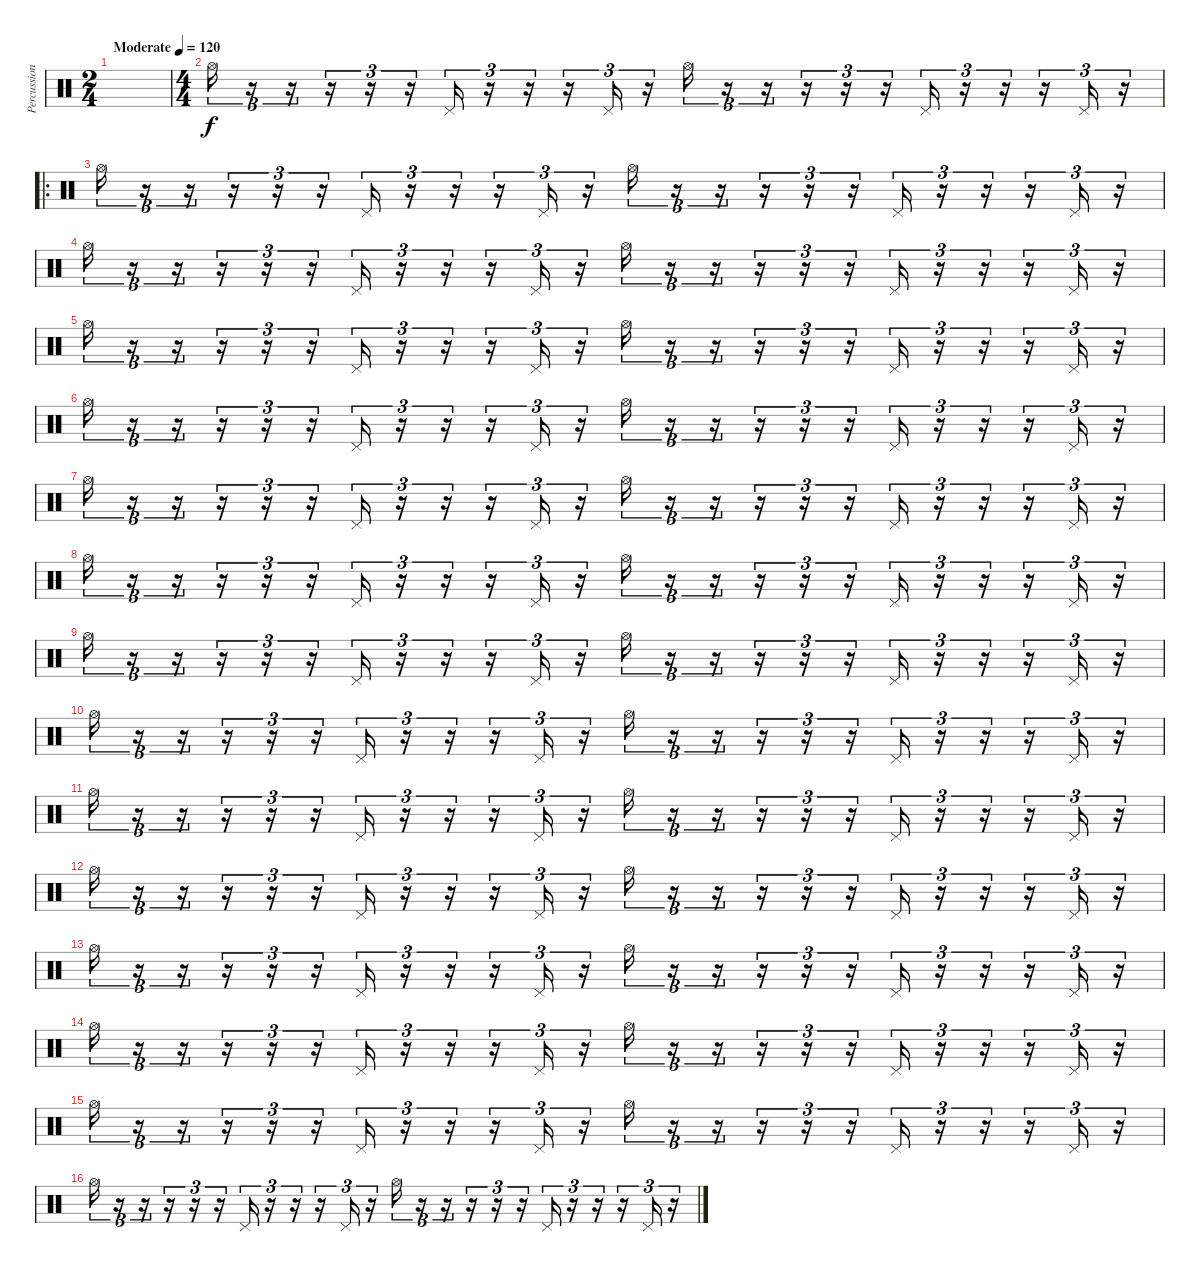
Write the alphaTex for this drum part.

\track ("Percussion" "Percussion") {instrument percussion}
\staff {score}
\articulation defaults
\ts (2 4)
\tempo (120 "Moderate")
\clef neutral
\ks c
|
\ts (4 4)
"Hi-Hat (open)".16{tu (3 2)} r.16{tu (3 2)} r.16{tu (3 2)} r.16{tu (3 2)} r.16{tu (3 2)} r.16{tu (3 2)} "Pedal Hi-Hat (hit)".16{tu (3 2)} r.16{tu (3 2)} r.16{tu (3 2)} r.16{tu (3 2)} "Pedal Hi-Hat (hit)".16{tu (3 2)} r.16{tu (3 2)} "Hi-Hat (open)".16{tu (3 2)} r.16{tu (3 2)} r.16{tu (3 2)} r.16{tu (3 2)} r.16{tu (3 2)} r.16{tu (3 2)} "Pedal Hi-Hat (hit)".16{tu (3 2)} r.16{tu (3 2)} r.16{tu (3 2)} r.16{tu (3 2)} "Pedal Hi-Hat (hit)".16{tu (3 2)} r.16{tu (3 2)} |
\ro "Hi-Hat (open)".16{tu (3 2)}
r.16{tu (3 2)} r.16{tu (3 2)} r.16{tu (3 2)} r.16{tu (3 2)} r.16{tu (3 2)} "Pedal Hi-Hat (hit)".16{tu (3 2)} r.16{tu (3 2)} r.16{tu (3 2)} r.16{tu (3 2)} "Pedal Hi-Hat (hit)".16{tu (3 2)} r.16{tu (3 2)} "Hi-Hat (open)".16{tu (3 2)} r.16{tu (3 2)} r.16{tu (3 2)} r.16{tu (3 2)} r.16{tu (3 2)} r.16{tu (3 2)} "Pedal Hi-Hat (hit)".16{tu (3 2)} r.16{tu (3 2)} r.16{tu (3 2)} r.16{tu (3 2)} "Pedal Hi-Hat (hit)".16{tu (3 2)} r.16{tu (3 2)} |
"Hi-Hat (open)".16{tu (3 2)} r.16{tu (3 2)} r.16{tu (3 2)} r.16{tu (3 2)} r.16{tu (3 2)} r.16{tu (3 2)} "Pedal Hi-Hat (hit)".16{tu (3 2)} r.16{tu (3 2)} r.16{tu (3 2)} r.16{tu (3 2)} "Pedal Hi-Hat (hit)".16{tu (3 2)} r.16{tu (3 2)} "Hi-Hat (open)".16{tu (3 2)} r.16{tu (3 2)} r.16{tu (3 2)} r.16{tu (3 2)} r.16{tu (3 2)} r.16{tu (3 2)} "Pedal Hi-Hat (hit)".16{tu (3 2)} r.16{tu (3 2)} r.16{tu (3 2)} r.16{tu (3 2)} "Pedal Hi-Hat (hit)".16{tu (3 2)} r.16{tu (3 2)} |
"Hi-Hat (open)".16{tu (3 2)} r.16{tu (3 2)} r.16{tu (3 2)} r.16{tu (3 2)} r.16{tu (3 2)} r.16{tu (3 2)} "Pedal Hi-Hat (hit)".16{tu (3 2)} r.16{tu (3 2)} r.16{tu (3 2)} r.16{tu (3 2)} "Pedal Hi-Hat (hit)".16{tu (3 2)} r.16{tu (3 2)} "Hi-Hat (open)".16{tu (3 2)} r.16{tu (3 2)} r.16{tu (3 2)} r.16{tu (3 2)} r.16{tu (3 2)} r.16{tu (3 2)} "Pedal Hi-Hat (hit)".16{tu (3 2)} r.16{tu (3 2)} r.16{tu (3 2)} r.16{tu (3 2)} "Pedal Hi-Hat (hit)".16{tu (3 2)} r.16{tu (3 2)} |
"Hi-Hat (open)".16{tu (3 2)} r.16{tu (3 2)} r.16{tu (3 2)} r.16{tu (3 2)} r.16{tu (3 2)} r.16{tu (3 2)} "Pedal Hi-Hat (hit)".16{tu (3 2)} r.16{tu (3 2)} r.16{tu (3 2)} r.16{tu (3 2)} "Pedal Hi-Hat (hit)".16{tu (3 2)} r.16{tu (3 2)} "Hi-Hat (open)".16{tu (3 2)} r.16{tu (3 2)} r.16{tu (3 2)} r.16{tu (3 2)} r.16{tu (3 2)} r.16{tu (3 2)} "Pedal Hi-Hat (hit)".16{tu (3 2)} r.16{tu (3 2)} r.16{tu (3 2)} r.16{tu (3 2)} "Pedal Hi-Hat (hit)".16{tu (3 2)} r.16{tu (3 2)} |
"Hi-Hat (open)".16{tu (3 2)} r.16{tu (3 2)} r.16{tu (3 2)} r.16{tu (3 2)} r.16{tu (3 2)} r.16{tu (3 2)} "Pedal Hi-Hat (hit)".16{tu (3 2)} r.16{tu (3 2)} r.16{tu (3 2)} r.16{tu (3 2)} "Pedal Hi-Hat (hit)".16{tu (3 2)} r.16{tu (3 2)} "Hi-Hat (open)".16{tu (3 2)} r.16{tu (3 2)} r.16{tu (3 2)} r.16{tu (3 2)} r.16{tu (3 2)} r.16{tu (3 2)} "Pedal Hi-Hat (hit)".16{tu (3 2)} r.16{tu (3 2)} r.16{tu (3 2)} r.16{tu (3 2)} "Pedal Hi-Hat (hit)".16{tu (3 2)} r.16{tu (3 2)} |
"Hi-Hat (open)".16{tu (3 2)} r.16{tu (3 2)} r.16{tu (3 2)} r.16{tu (3 2)} r.16{tu (3 2)} r.16{tu (3 2)} "Pedal Hi-Hat (hit)".16{tu (3 2)} r.16{tu (3 2)} r.16{tu (3 2)} r.16{tu (3 2)} "Pedal Hi-Hat (hit)".16{tu (3 2)} r.16{tu (3 2)} "Hi-Hat (open)".16{tu (3 2)} r.16{tu (3 2)} r.16{tu (3 2)} r.16{tu (3 2)} r.16{tu (3 2)} r.16{tu (3 2)} "Pedal Hi-Hat (hit)".16{tu (3 2)} r.16{tu (3 2)} r.16{tu (3 2)} r.16{tu (3 2)} "Pedal Hi-Hat (hit)".16{tu (3 2)} r.16{tu (3 2)} |
"Hi-Hat (open)".16{tu (3 2)} r.16{tu (3 2)} r.16{tu (3 2)} r.16{tu (3 2)} r.16{tu (3 2)} r.16{tu (3 2)} "Pedal Hi-Hat (hit)".16{tu (3 2)} r.16{tu (3 2)} r.16{tu (3 2)} r.16{tu (3 2)} "Pedal Hi-Hat (hit)".16{tu (3 2)} r.16{tu (3 2)} "Hi-Hat (open)".16{tu (3 2)} r.16{tu (3 2)} r.16{tu (3 2)} r.16{tu (3 2)} r.16{tu (3 2)} r.16{tu (3 2)} "Pedal Hi-Hat (hit)".16{tu (3 2)} r.16{tu (3 2)} r.16{tu (3 2)} r.16{tu (3 2)} "Pedal Hi-Hat (hit)".16{tu (3 2)} r.16{tu (3 2)} |
"Hi-Hat (open)".16{tu (3 2)} r.16{tu (3 2)} r.16{tu (3 2)} r.16{tu (3 2)} r.16{tu (3 2)} r.16{tu (3 2)} "Pedal Hi-Hat (hit)".16{tu (3 2)} r.16{tu (3 2)} r.16{tu (3 2)} r.16{tu (3 2)} "Pedal Hi-Hat (hit)".16{tu (3 2)} r.16{tu (3 2)} "Hi-Hat (open)".16{tu (3 2)} r.16{tu (3 2)} r.16{tu (3 2)} r.16{tu (3 2)} r.16{tu (3 2)} r.16{tu (3 2)} "Pedal Hi-Hat (hit)".16{tu (3 2)} r.16{tu (3 2)} r.16{tu (3 2)} r.16{tu (3 2)} "Pedal Hi-Hat (hit)".16{tu (3 2)} r.16{tu (3 2)} |
"Hi-Hat (open)".16{tu (3 2)} r.16{tu (3 2)} r.16{tu (3 2)} r.16{tu (3 2)} r.16{tu (3 2)} r.16{tu (3 2)} "Pedal Hi-Hat (hit)".16{tu (3 2)} r.16{tu (3 2)} r.16{tu (3 2)} r.16{tu (3 2)} "Pedal Hi-Hat (hit)".16{tu (3 2)} r.16{tu (3 2)} "Hi-Hat (open)".16{tu (3 2)} r.16{tu (3 2)} r.16{tu (3 2)} r.16{tu (3 2)} r.16{tu (3 2)} r.16{tu (3 2)} "Pedal Hi-Hat (hit)".16{tu (3 2)} r.16{tu (3 2)} r.16{tu (3 2)} r.16{tu (3 2)} "Pedal Hi-Hat (hit)".16{tu (3 2)} r.16{tu (3 2)} |
"Hi-Hat (open)".16{tu (3 2)} r.16{tu (3 2)} r.16{tu (3 2)} r.16{tu (3 2)} r.16{tu (3 2)} r.16{tu (3 2)} "Pedal Hi-Hat (hit)".16{tu (3 2)} r.16{tu (3 2)} r.16{tu (3 2)} r.16{tu (3 2)} "Pedal Hi-Hat (hit)".16{tu (3 2)} r.16{tu (3 2)} "Hi-Hat (open)".16{tu (3 2)} r.16{tu (3 2)} r.16{tu (3 2)} r.16{tu (3 2)} r.16{tu (3 2)} r.16{tu (3 2)} "Pedal Hi-Hat (hit)".16{tu (3 2)} r.16{tu (3 2)} r.16{tu (3 2)} r.16{tu (3 2)} "Pedal Hi-Hat (hit)".16{tu (3 2)} r.16{tu (3 2)} |
"Hi-Hat (open)".16{tu (3 2)} r.16{tu (3 2)} r.16{tu (3 2)} r.16{tu (3 2)} r.16{tu (3 2)} r.16{tu (3 2)} "Pedal Hi-Hat (hit)".16{tu (3 2)} r.16{tu (3 2)} r.16{tu (3 2)} r.16{tu (3 2)} "Pedal Hi-Hat (hit)".16{tu (3 2)} r.16{tu (3 2)} "Hi-Hat (open)".16{tu (3 2)} r.16{tu (3 2)} r.16{tu (3 2)} r.16{tu (3 2)} r.16{tu (3 2)} r.16{tu (3 2)} "Pedal Hi-Hat (hit)".16{tu (3 2)} r.16{tu (3 2)} r.16{tu (3 2)} r.16{tu (3 2)} "Pedal Hi-Hat (hit)".16{tu (3 2)} r.16{tu (3 2)} |
"Hi-Hat (open)".16{tu (3 2)} r.16{tu (3 2)} r.16{tu (3 2)} r.16{tu (3 2)} r.16{tu (3 2)} r.16{tu (3 2)} "Pedal Hi-Hat (hit)".16{tu (3 2)} r.16{tu (3 2)} r.16{tu (3 2)} r.16{tu (3 2)} "Pedal Hi-Hat (hit)".16{tu (3 2)} r.16{tu (3 2)} "Hi-Hat (open)".16{tu (3 2)} r.16{tu (3 2)} r.16{tu (3 2)} r.16{tu (3 2)} r.16{tu (3 2)} r.16{tu (3 2)} "Pedal Hi-Hat (hit)".16{tu (3 2)} r.16{tu (3 2)} r.16{tu (3 2)} r.16{tu (3 2)} "Pedal Hi-Hat (hit)".16{tu (3 2)} r.16{tu (3 2)} |
"Hi-Hat (open)".16{tu (3 2)} r.16{tu (3 2)} r.16{tu (3 2)} r.16{tu (3 2)} r.16{tu (3 2)} r.16{tu (3 2)} "Pedal Hi-Hat (hit)".16{tu (3 2)} r.16{tu (3 2)} r.16{tu (3 2)} r.16{tu (3 2)} "Pedal Hi-Hat (hit)".16{tu (3 2)} r.16{tu (3 2)} "Hi-Hat (open)".16{tu (3 2)} r.16{tu (3 2)} r.16{tu (3 2)} r.16{tu (3 2)} r.16{tu (3 2)} r.16{tu (3 2)} "Pedal Hi-Hat (hit)".16{tu (3 2)} r.16{tu (3 2)} r.16{tu (3 2)} r.16{tu (3 2)} "Pedal Hi-Hat (hit)".16{tu (3 2)} r.16{tu (3 2)} |
"Hi-Hat (open)".16{tu (3 2)} r.16{tu (3 2)} r.16{tu (3 2)} r.16{tu (3 2)} r.16{tu (3 2)} r.16{tu (3 2)} "Pedal Hi-Hat (hit)".16{tu (3 2)} r.16{tu (3 2)} r.16{tu (3 2)} r.16{tu (3 2)} "Pedal Hi-Hat (hit)".16{tu (3 2)} r.16{tu (3 2)} "Hi-Hat (open)".16{tu (3 2)} r.16{tu (3 2)} r.16{tu (3 2)} r.16{tu (3 2)} r.16{tu (3 2)} r.16{tu (3 2)} "Pedal Hi-Hat (hit)".16{tu (3 2)} r.16{tu (3 2)} r.16{tu (3 2)} r.16{tu (3 2)} "Pedal Hi-Hat (hit)".16{tu (3 2)} r.16{tu (3 2)}
